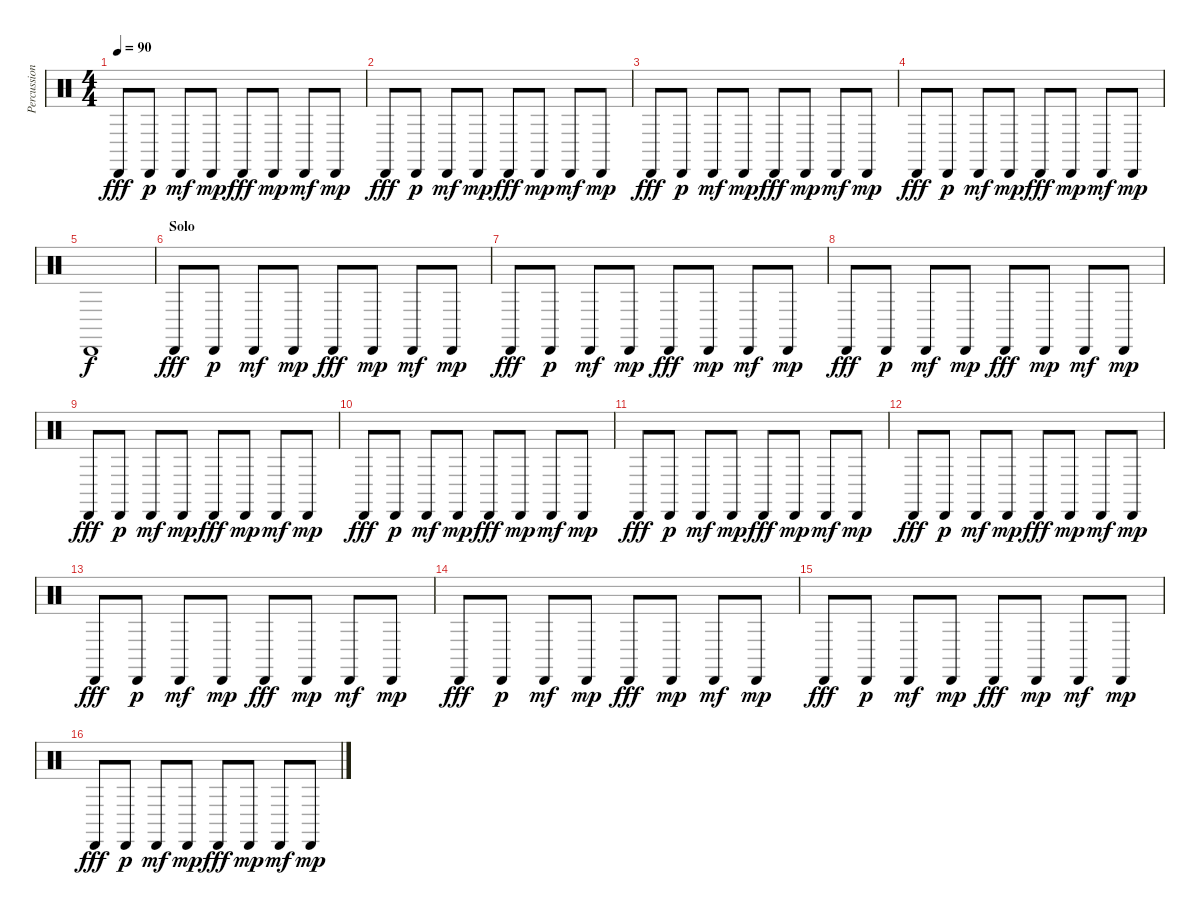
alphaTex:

\track ("Percussion" "Percussion") {instrument percussion}
\staff {score}
\articulation defaults
\ts (4 4)
\tempo 90
\clef neutral
\ks c "Cabasa (hit)".8{dy fff} "Cabasa (hit)".8{dy p} "Cabasa (hit)".8{dy mf} "Cabasa (hit)".8{dy mp} "Cabasa (hit)".8{dy fff} "Cabasa (hit)".8{dy mp} "Cabasa (hit)".8{dy mf} "Cabasa (hit)".8{dy mp}
|
"Cabasa (hit)".8{dy fff} "Cabasa (hit)".8{dy p} "Cabasa (hit)".8{dy mf} "Cabasa (hit)".8{dy mp} "Cabasa (hit)".8{dy fff} "Cabasa (hit)".8{dy mp} "Cabasa (hit)".8{dy mf} "Cabasa (hit)".8{dy mp} |
"Cabasa (hit)".8{dy fff} "Cabasa (hit)".8{dy p} "Cabasa (hit)".8{dy mf} "Cabasa (hit)".8{dy mp} "Cabasa (hit)".8{dy fff} "Cabasa (hit)".8{dy mp} "Cabasa (hit)".8{dy mf} "Cabasa (hit)".8{dy mp} |
"Cabasa (hit)".8{dy fff} "Cabasa (hit)".8{dy p} "Cabasa (hit)".8{dy mf} "Cabasa (hit)".8{dy mp} "Cabasa (hit)".8{dy fff} "Cabasa (hit)".8{dy mp} "Cabasa (hit)".8{dy mf} "Cabasa (hit)".8{dy mp} |
"Cabasa (hit)".1{dy f} |
\section ("" "Solo")
"Cabasa (hit)".8{dy fff} "Cabasa (hit)".8{dy p} "Cabasa (hit)".8{dy mf} "Cabasa (hit)".8{dy mp} "Cabasa (hit)".8{dy fff} "Cabasa (hit)".8{dy mp} "Cabasa (hit)".8{dy mf} "Cabasa (hit)".8{dy mp} |
"Cabasa (hit)".8{dy fff} "Cabasa (hit)".8{dy p} "Cabasa (hit)".8{dy mf} "Cabasa (hit)".8{dy mp} "Cabasa (hit)".8{dy fff} "Cabasa (hit)".8{dy mp} "Cabasa (hit)".8{dy mf} "Cabasa (hit)".8{dy mp} |
"Cabasa (hit)".8{dy fff} "Cabasa (hit)".8{dy p} "Cabasa (hit)".8{dy mf} "Cabasa (hit)".8{dy mp} "Cabasa (hit)".8{dy fff} "Cabasa (hit)".8{dy mp} "Cabasa (hit)".8{dy mf} "Cabasa (hit)".8{dy mp} |
"Cabasa (hit)".8{dy fff} "Cabasa (hit)".8{dy p} "Cabasa (hit)".8{dy mf} "Cabasa (hit)".8{dy mp} "Cabasa (hit)".8{dy fff} "Cabasa (hit)".8{dy mp} "Cabasa (hit)".8{dy mf} "Cabasa (hit)".8{dy mp} |
"Cabasa (hit)".8{dy fff} "Cabasa (hit)".8{dy p} "Cabasa (hit)".8{dy mf} "Cabasa (hit)".8{dy mp} "Cabasa (hit)".8{dy fff} "Cabasa (hit)".8{dy mp} "Cabasa (hit)".8{dy mf} "Cabasa (hit)".8{dy mp} |
"Cabasa (hit)".8{dy fff} "Cabasa (hit)".8{dy p} "Cabasa (hit)".8{dy mf} "Cabasa (hit)".8{dy mp} "Cabasa (hit)".8{dy fff} "Cabasa (hit)".8{dy mp} "Cabasa (hit)".8{dy mf} "Cabasa (hit)".8{dy mp} |
"Cabasa (hit)".8{dy fff} "Cabasa (hit)".8{dy p} "Cabasa (hit)".8{dy mf} "Cabasa (hit)".8{dy mp} "Cabasa (hit)".8{dy fff} "Cabasa (hit)".8{dy mp} "Cabasa (hit)".8{dy mf} "Cabasa (hit)".8{dy mp} |
"Cabasa (hit)".8{dy fff} "Cabasa (hit)".8{dy p} "Cabasa (hit)".8{dy mf} "Cabasa (hit)".8{dy mp} "Cabasa (hit)".8{dy fff} "Cabasa (hit)".8{dy mp} "Cabasa (hit)".8{dy mf} "Cabasa (hit)".8{dy mp} |
"Cabasa (hit)".8{dy fff} "Cabasa (hit)".8{dy p} "Cabasa (hit)".8{dy mf} "Cabasa (hit)".8{dy mp} "Cabasa (hit)".8{dy fff} "Cabasa (hit)".8{dy mp} "Cabasa (hit)".8{dy mf} "Cabasa (hit)".8{dy mp} |
"Cabasa (hit)".8{dy fff} "Cabasa (hit)".8{dy p} "Cabasa (hit)".8{dy mf} "Cabasa (hit)".8{dy mp} "Cabasa (hit)".8{dy fff} "Cabasa (hit)".8{dy mp} "Cabasa (hit)".8{dy mf} "Cabasa (hit)".8{dy mp} |
"Cabasa (hit)".8{dy fff} "Cabasa (hit)".8{dy p} "Cabasa (hit)".8{dy mf} "Cabasa (hit)".8{dy mp} "Cabasa (hit)".8{dy fff} "Cabasa (hit)".8{dy mp} "Cabasa (hit)".8{dy mf} "Cabasa (hit)".8{dy mp}
